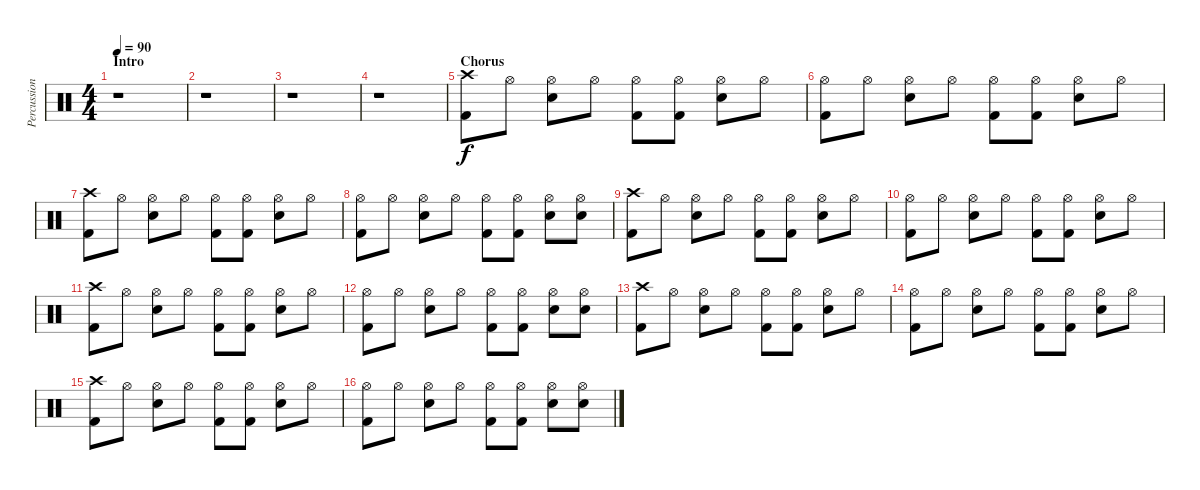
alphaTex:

\track ("Percussion" "Percussion") {instrument percussion}
\staff {score}
\articulation defaults
\ts (4 4)
\section ("" "Intro")
\tempo 90
\clef neutral
\ks c
r.1{dy f} |
r.1 |
r.1 |
r.1 |
\section ("" "Chorus")
("Crash high (hit)" "Kick (hit) 2").8 "Hi-Hat (open)".8 ("Hi-Hat (open)" "Electric Snare (hit)").8 "Hi-Hat (open)".8 ("Hi-Hat (open)" "Kick (hit) 2").8 ("Hi-Hat (open)" "Kick (hit) 2").8 ("Hi-Hat (open)" "Electric Snare (hit)").8 "Hi-Hat (open)".8 |
("Hi-Hat (open)" "Kick (hit) 2").8 "Hi-Hat (open)".8 ("Hi-Hat (open)" "Electric Snare (hit)").8 "Hi-Hat (open)".8 ("Hi-Hat (open)" "Kick (hit) 2").8 ("Hi-Hat (open)" "Kick (hit) 2").8 ("Hi-Hat (open)" "Electric Snare (hit)").8 "Hi-Hat (open)".8 |
("Crash high (hit)" "Kick (hit) 2").8 "Hi-Hat (open)".8 ("Hi-Hat (open)" "Electric Snare (hit)").8 "Hi-Hat (open)".8 ("Hi-Hat (open)" "Kick (hit) 2").8 ("Hi-Hat (open)" "Kick (hit) 2").8 ("Hi-Hat (open)" "Electric Snare (hit)").8 "Hi-Hat (open)".8 |
("Hi-Hat (open)" "Kick (hit) 2").8 "Hi-Hat (open)".8 ("Hi-Hat (open)" "Electric Snare (hit)").8 "Hi-Hat (open)".8 ("Hi-Hat (open)" "Kick (hit) 2").8 ("Hi-Hat (open)" "Kick (hit) 2").8 ("Hi-Hat (open)" "Electric Snare (hit)").8 ("Hi-Hat (open)" "Electric Snare (hit)").8 |
("Crash high (hit)" "Kick (hit) 2").8 "Hi-Hat (open)".8 ("Hi-Hat (open)" "Electric Snare (hit)").8 "Hi-Hat (open)".8 ("Hi-Hat (open)" "Kick (hit) 2").8 ("Hi-Hat (open)" "Kick (hit) 2").8 ("Hi-Hat (open)" "Electric Snare (hit)").8 "Hi-Hat (open)".8 |
("Hi-Hat (open)" "Kick (hit) 2").8 "Hi-Hat (open)".8 ("Hi-Hat (open)" "Electric Snare (hit)").8 "Hi-Hat (open)".8 ("Hi-Hat (open)" "Kick (hit) 2").8 ("Hi-Hat (open)" "Kick (hit) 2").8 ("Hi-Hat (open)" "Electric Snare (hit)").8 "Hi-Hat (open)".8 |
("Crash high (hit)" "Kick (hit) 2").8 "Hi-Hat (open)".8 ("Hi-Hat (open)" "Electric Snare (hit)").8 "Hi-Hat (open)".8 ("Hi-Hat (open)" "Kick (hit) 2").8 ("Hi-Hat (open)" "Kick (hit) 2").8 ("Hi-Hat (open)" "Electric Snare (hit)").8 "Hi-Hat (open)".8 |
("Hi-Hat (open)" "Kick (hit) 2").8 "Hi-Hat (open)".8 ("Hi-Hat (open)" "Electric Snare (hit)").8 "Hi-Hat (open)".8 ("Hi-Hat (open)" "Kick (hit) 2").8 ("Hi-Hat (open)" "Kick (hit) 2").8 ("Hi-Hat (open)" "Electric Snare (hit)").8 ("Hi-Hat (open)" "Electric Snare (hit)").8 |
("Crash high (hit)" "Kick (hit) 2").8 "Hi-Hat (open)".8 ("Hi-Hat (open)" "Electric Snare (hit)").8 "Hi-Hat (open)".8 ("Hi-Hat (open)" "Kick (hit) 2").8 ("Hi-Hat (open)" "Kick (hit) 2").8 ("Hi-Hat (open)" "Electric Snare (hit)").8 "Hi-Hat (open)".8 |
("Hi-Hat (open)" "Kick (hit) 2").8 "Hi-Hat (open)".8 ("Hi-Hat (open)" "Electric Snare (hit)").8 "Hi-Hat (open)".8 ("Hi-Hat (open)" "Kick (hit) 2").8 ("Hi-Hat (open)" "Kick (hit) 2").8 ("Hi-Hat (open)" "Electric Snare (hit)").8 "Hi-Hat (open)".8 |
("Crash high (hit)" "Kick (hit) 2").8 "Hi-Hat (open)".8 ("Hi-Hat (open)" "Electric Snare (hit)").8 "Hi-Hat (open)".8 ("Hi-Hat (open)" "Kick (hit) 2").8 ("Hi-Hat (open)" "Kick (hit) 2").8 ("Hi-Hat (open)" "Electric Snare (hit)").8 "Hi-Hat (open)".8 |
("Hi-Hat (open)" "Kick (hit) 2").8 "Hi-Hat (open)".8 ("Hi-Hat (open)" "Electric Snare (hit)").8 "Hi-Hat (open)".8 ("Hi-Hat (open)" "Kick (hit) 2").8 ("Hi-Hat (open)" "Kick (hit) 2").8 ("Hi-Hat (open)" "Electric Snare (hit)").8 ("Hi-Hat (open)" "Electric Snare (hit)").8
